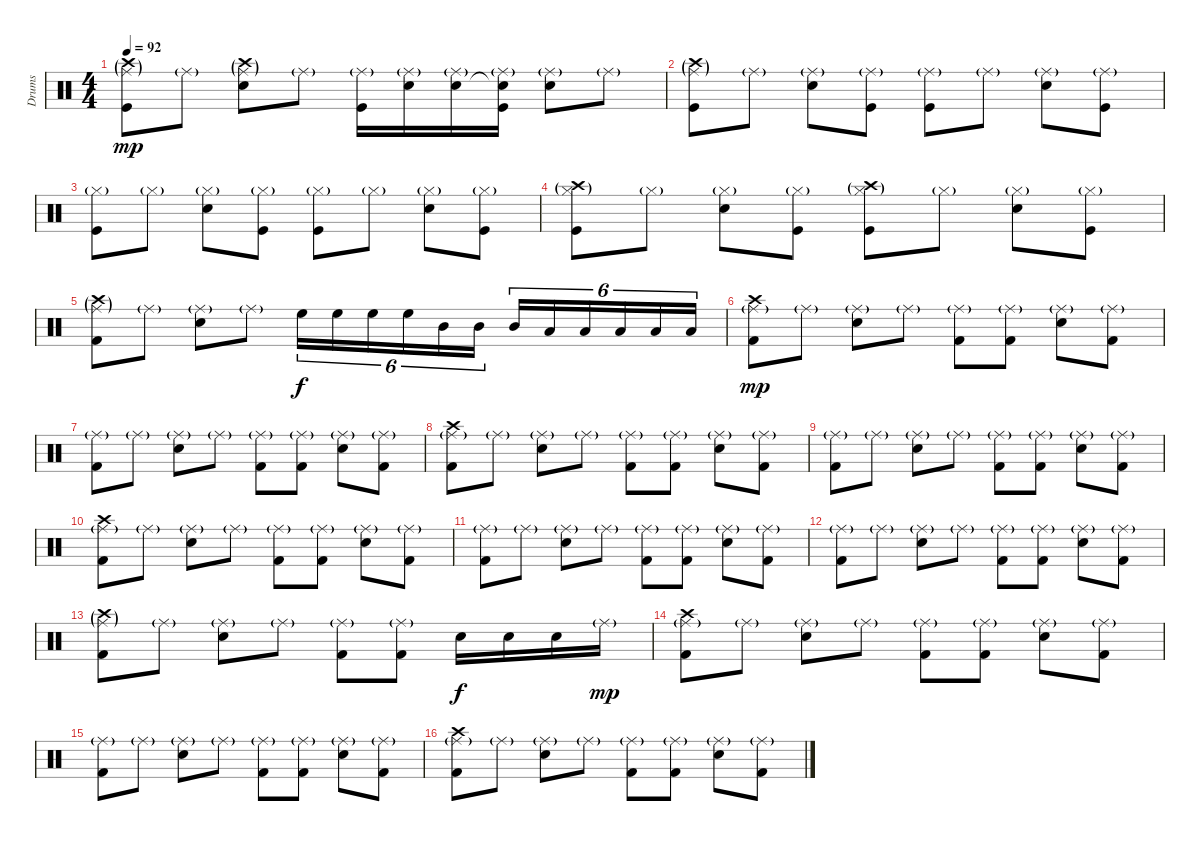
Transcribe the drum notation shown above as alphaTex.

\track ("Drums" "Drums") {instrument percussion}
\staff {score}
\articulation defaults
\ts (4 4)
\tempo 92
\clef neutral
\ks c
("Ride (middle)"{g} "Crash high (hit)"{g} "Kick (hit)").8{dy mp} "Ride (middle)"{g}.8 ("Ride (middle)"{g} "Crash high (hit)"{g} "Snare (hit) 2").8 "Ride (middle)"{g}.8 ("Ride (middle)"{g} "Kick (hit)").16 ("Ride (middle)"{g} "Snare (hit) 2").16 ("Ride (middle)"{g} "Snare (hit) 2").16 ("Ride (middle)"{g} "Snare (hit)"{t} "Kick (hit)").16 ("Ride (middle)"{g} "Snare (hit) 2").8 "Ride (middle)"{g}.8 |
("Ride (middle)"{g} "Crash high (hit)"{g} "Kick (hit)").8 "Ride (middle)"{g}.8 ("Ride (middle)"{g} "Snare (hit) 2").8 ("Ride (middle)"{g} "Kick (hit)").8 ("Ride (middle)"{g} "Kick (hit)").8 "Ride (middle)"{g}.8 ("Ride (middle)"{g} "Snare (hit) 2").8 ("Ride (middle)"{g} "Kick (hit)").8 |
("Hi-Hat (closed)"{g} "Kick (hit)").8 "Hi-Hat (closed)"{g}.8 ("Hi-Hat (closed)"{g} "Snare (hit) 2").8 ("Hi-Hat (closed)"{g} "Kick (hit)").8 ("Hi-Hat (closed)"{g} "Kick (hit)").8 "Hi-Hat (closed)"{g}.8 ("Hi-Hat (closed)"{g} "Snare (hit) 2").8 ("Hi-Hat (closed)"{g} "Kick (hit)").8 |
("Hi-Hat (closed)"{g} "Crash high (hit)"{g} "Kick (hit)").8 "Hi-Hat (closed)"{g}.8 ("Hi-Hat (closed)"{g} "Snare (hit) 2").8 ("Hi-Hat (closed)"{g} "Kick (hit)").8 ("Hi-Hat (closed)"{g} "Crash high (hit)"{g} "Kick (hit)").8 "Hi-Hat (closed)"{g}.8 ("Hi-Hat (closed)"{g} "Snare (hit) 2").8 ("Hi-Hat (closed)"{g} "Kick (hit)").8 |
("Ride (middle)"{g} "Crash high (hit)"{g} "Kick (hit) 2").8 "Ride (middle)"{g}.8 ("Ride (middle)"{g} "Snare (hit) 2").8 "Ride (middle)"{g}.8 "High Floor Tom (hit)".16{tu (6 4) dy f} "High Floor Tom (hit)".16{tu (6 4)} "High Floor Tom (hit)".16{tu (6 4)} "High Floor Tom (hit)".16{tu (6 4)} "Mid Tom (hit)".16{tu (6 4)} "Mid Tom (hit)".16{tu (6 4)} "Mid Tom (hit)".16{tu (6 4)} "Low Tom (hit)".16{tu (6 4)} "Low Tom (hit)".16{tu (6 4)} "Low Tom (hit)".16{tu (6 4)} "Low Floor Tom (hit)".16{tu (6 4)} "Low Floor Tom (hit)".16{tu (6 4)} |
("Ride (middle)"{g} "Crash high (hit)" "Kick (hit) 2").8{dy mp} "Ride (middle)"{g}.8 ("Ride (middle)"{g} "Snare (hit) 2").8 "Ride (middle)"{g}.8 ("Ride (middle)"{g} "Kick (hit) 2").8 ("Ride (middle)"{g} "Kick (hit) 2").8 ("Ride (middle)"{g} "Snare (hit) 2").8 ("Ride (middle)"{g} "Kick (hit) 2").8 |
("Ride (middle)"{g} "Kick (hit) 2").8 "Ride (middle)"{g}.8 ("Ride (middle)"{g} "Snare (hit) 2").8 "Ride (middle)"{g}.8 ("Ride (middle)"{g} "Kick (hit) 2").8 ("Ride (middle)"{g} "Kick (hit) 2").8 ("Ride (middle)"{g} "Snare (hit) 2").8 ("Ride (middle)"{g} "Kick (hit) 2").8 |
("Ride (middle)"{g} "Crash high (hit)" "Kick (hit) 2").8 "Ride (middle)"{g}.8 ("Ride (middle)"{g} "Snare (hit) 2").8 "Ride (middle)"{g}.8 ("Ride (middle)"{g} "Kick (hit) 2").8 ("Ride (middle)"{g} "Kick (hit) 2").8 ("Ride (middle)"{g} "Snare (hit) 2").8 ("Ride (middle)"{g} "Kick (hit) 2").8 |
("Ride (middle)"{g} "Kick (hit) 2").8 "Ride (middle)"{g}.8 ("Ride (middle)"{g} "Snare (hit) 2").8 "Ride (middle)"{g}.8 ("Ride (middle)"{g} "Kick (hit) 2").8 ("Ride (middle)"{g} "Kick (hit) 2").8 ("Ride (middle)"{g} "Snare (hit) 2").8 ("Ride (middle)"{g} "Kick (hit) 2").8 |
("Ride (middle)"{g} "Crash high (hit)" "Kick (hit) 2").8 "Ride (middle)"{g}.8 ("Ride (middle)"{g} "Snare (hit) 2").8 "Ride (middle)"{g}.8 ("Ride (middle)"{g} "Kick (hit) 2").8 ("Ride (middle)"{g} "Kick (hit) 2").8 ("Ride (middle)"{g} "Snare (hit) 2").8 ("Ride (middle)"{g} "Kick (hit) 2").8 |
("Ride (middle)"{g} "Kick (hit) 2").8 "Ride (middle)"{g}.8 ("Ride (middle)"{g} "Snare (hit) 2").8 "Ride (middle)"{g}.8 ("Ride (middle)"{g} "Kick (hit) 2").8 ("Ride (middle)"{g} "Kick (hit) 2").8 ("Ride (middle)"{g} "Snare (hit) 2").8 ("Ride (middle)"{g} "Kick (hit) 2").8 |
("Ride (middle)"{g} "Kick (hit) 2").8 "Ride (middle)"{g}.8 ("Ride (middle)"{g} "Snare (hit) 2").8 "Ride (middle)"{g}.8 ("Ride (middle)"{g} "Kick (hit) 2").8 ("Ride (middle)"{g} "Kick (hit) 2").8 ("Ride (middle)"{g} "Snare (hit) 2").8 ("Ride (middle)"{g} "Kick (hit) 2").8 |
("Ride (middle)"{g} "Crash high (hit)"{g} "Kick (hit) 2").8 "Ride (middle)"{g}.8 ("Ride (middle)"{g} "Snare (hit) 2").8 "Ride (middle)"{g}.8 ("Ride (middle)"{g} "Kick (hit) 2").8 ("Ride (middle)"{g} "Kick (hit) 2").8 "Snare (hit) 2".16{dy f} "Snare (hit) 2".16 "Snare (hit) 2".16 "Ride (middle)"{g}.16{dy mp} |
("Ride (middle)"{g} "Crash high (hit)" "Kick (hit) 2").8 "Ride (middle)"{g}.8 ("Ride (middle)"{g} "Snare (hit) 2").8 "Ride (middle)"{g}.8 ("Ride (middle)"{g} "Kick (hit) 2").8 ("Ride (middle)"{g} "Kick (hit) 2").8 ("Ride (middle)"{g} "Snare (hit) 2").8 ("Ride (middle)"{g} "Kick (hit) 2").8 |
("Ride (middle)"{g} "Kick (hit) 2").8 "Ride (middle)"{g}.8 ("Ride (middle)"{g} "Snare (hit) 2").8 "Ride (middle)"{g}.8 ("Ride (middle)"{g} "Kick (hit) 2").8 ("Ride (middle)"{g} "Kick (hit) 2").8 ("Ride (middle)"{g} "Snare (hit) 2").8 ("Ride (middle)"{g} "Kick (hit) 2").8 |
("Ride (middle)"{g} "Crash high (hit)" "Kick (hit) 2").8 "Ride (middle)"{g}.8 ("Ride (middle)"{g} "Snare (hit) 2").8 "Ride (middle)"{g}.8 ("Ride (middle)"{g} "Kick (hit) 2").8 ("Ride (middle)"{g} "Kick (hit) 2").8 ("Ride (middle)"{g} "Snare (hit) 2").8 ("Ride (middle)"{g} "Kick (hit) 2").8
